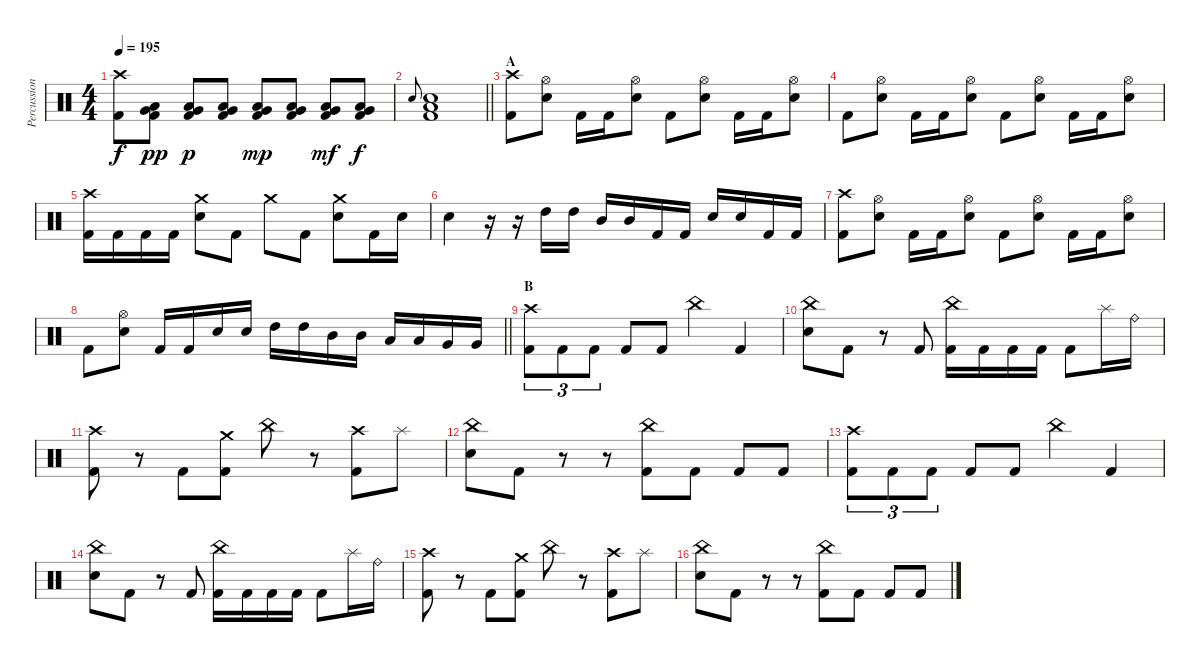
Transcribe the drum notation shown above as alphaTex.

\track ("Percussion" "Percussion") {instrument percussion}
\staff {score}
\articulation defaults
\ts (4 4)
\tempo 195
\clef neutral
\ks c
("Crash high (hit)" "Kick (hit) 2").8{dy f} ("Very Low Tom (hit)" "Low Floor Tom (hit)" "Kick (hit) 2").8{dy pp} ("Very Low Tom (hit)" "Low Floor Tom (hit)" "Kick (hit) 2").8{dy p} ("Very Low Tom (hit)" "Low Floor Tom (hit)" "Kick (hit) 2").8 ("Very Low Tom (hit)" "Low Floor Tom (hit)" "Kick (hit) 2").8{dy mp} ("Very Low Tom (hit)" "Low Floor Tom (hit)" "Kick (hit) 2").8 ("Very Low Tom (hit)" "Low Floor Tom (hit)" "Kick (hit) 2").8{dy mf} ("Very Low Tom (hit)" "Low Floor Tom (hit)" "Kick (hit) 2").8{dy f} |
\barLineRight lightlight "Electric Snare (hit)".8{gr onbeat}
("Low Floor Tom (hit)" "Electric Snare (hit)" "Kick (hit) 2").1 |
\section ("" "A")
("Crash high (hit)" "Kick (hit) 2").8 ("Hi-Hat (open)" "Electric Snare (hit)").8 "Kick (hit) 2".16 "Kick (hit) 2".16 ("Hi-Hat (open)" "Electric Snare (hit)").8 "Kick (hit) 2".8 ("Hi-Hat (open)" "Electric Snare (hit)").8 "Kick (hit) 2".16 "Kick (hit) 2".16 ("Hi-Hat (open)" "Electric Snare (hit)").8 |
"Kick (hit) 2".8 ("Hi-Hat (open)" "Electric Snare (hit)").8 "Kick (hit) 2".16 "Kick (hit) 2".16 ("Hi-Hat (open)" "Electric Snare (hit)").8 "Kick (hit) 2".8 ("Hi-Hat (open)" "Electric Snare (hit)").8 "Kick (hit) 2".16 "Kick (hit) 2".16 ("Hi-Hat (open)" "Electric Snare (hit)").8 |
("Crash high (hit)" "Kick (hit) 2").16 "Kick (hit) 2".16 "Kick (hit) 2".16 "Kick (hit) 2".16 ("Crash medium (hit)" "Electric Snare (hit)").8 "Kick (hit) 2".8 "Crash medium (hit)".8 "Kick (hit) 2".8 ("Crash medium (hit)" "Electric Snare (hit)").8 "Kick (hit) 2".16 "Electric Snare (hit)".16 |
"Electric Snare (hit)".4 r.16 r.16 "High Tom (hit)".16 "High Tom (hit)".16 "Mid Tom (hit)".16 "Mid Tom (hit)".16 "Kick (hit) 2".16 "Kick (hit) 2".16 "Electric Snare (hit)".16 "Electric Snare (hit)".16 "Kick (hit) 2".16 "Kick (hit) 2".16 |
("Crash high (hit)" "Kick (hit) 2").8 ("Hi-Hat (open)" "Electric Snare (hit)").8 "Kick (hit) 2".16 "Kick (hit) 2".16 ("Hi-Hat (open)" "Electric Snare (hit)").8 "Kick (hit) 2".8 ("Hi-Hat (open)" "Electric Snare (hit)").8 "Kick (hit) 2".16 "Kick (hit) 2".16 ("Hi-Hat (open)" "Electric Snare (hit)").8 |
\barLineRight lightlight "Kick (hit) 2".8
("Hi-Hat (open)" "Electric Snare (hit)").8 "Kick (hit) 2".16 "Kick (hit) 2".16 "Electric Snare (hit)".16 "Electric Snare (hit)".16 "High Tom (hit)".16 "High Tom (hit)".16 "Mid Tom (hit)".16 "Mid Tom (hit)".16 "Low Tom (hit)".16 "Low Tom (hit)".16 "Very Low Tom (hit)".16 "Very Low Tom (hit)".16 |
\section ("" "B")
("Crash high (hit)" "Kick (hit) 2").8{tu (3 2)} "Kick (hit) 2".8{tu (3 2)} "Kick (hit) 2".8{tu (3 2)} "Kick (hit) 2".8 "Kick (hit) 2".8 "China (hit)".4 "Kick (hit) 2".4 |
("China (hit)" "Electric Snare (hit)").8 "Kick (hit) 2".8 r.8 "Kick (hit) 2".8 ("China (hit)" "Kick (hit) 2").16 "Kick (hit) 2".16 "Kick (hit) 2".16 "Kick (hit) 2".16 "Kick (hit) 2".8 "Splash (hit)".16 "Ride (bell)".16 |
("Crash high (hit)" "Kick (hit) 2").8 r.8 "Kick (hit) 2".8 ("Crash medium (hit)" "Kick (hit) 2").8 "China (hit)".8 r.8 ("Crash high (hit)" "Kick (hit) 2").8 "Splash (hit)".8 |
("China (hit)" "Electric Snare (hit)").8 "Kick (hit) 2".8 r.8 r.8 ("China (hit)" "Kick (hit) 2").8 "Kick (hit) 2".8 "Kick (hit) 2".8 "Kick (hit) 2".8 |
("Crash high (hit)" "Kick (hit) 2").8{tu (3 2)} "Kick (hit) 2".8{tu (3 2)} "Kick (hit) 2".8{tu (3 2)} "Kick (hit) 2".8 "Kick (hit) 2".8 "China (hit)".4 "Kick (hit) 2".4 |
("China (hit)" "Electric Snare (hit)").8 "Kick (hit) 2".8 r.8 "Kick (hit) 2".8 ("China (hit)" "Kick (hit) 2").16 "Kick (hit) 2".16 "Kick (hit) 2".16 "Kick (hit) 2".16 "Kick (hit) 2".8 "Splash (hit)".16 "Ride (bell)".16 |
("Crash high (hit)" "Kick (hit) 2").8 r.8 "Kick (hit) 2".8 ("Crash medium (hit)" "Kick (hit) 2").8 "China (hit)".8 r.8 ("Crash high (hit)" "Kick (hit) 2").8 "Splash (hit)".8 |
("China (hit)" "Electric Snare (hit)").8 "Kick (hit) 2".8 r.8 r.8 ("China (hit)" "Kick (hit) 2").8 "Kick (hit) 2".8 "Kick (hit) 2".8 "Kick (hit) 2".8
